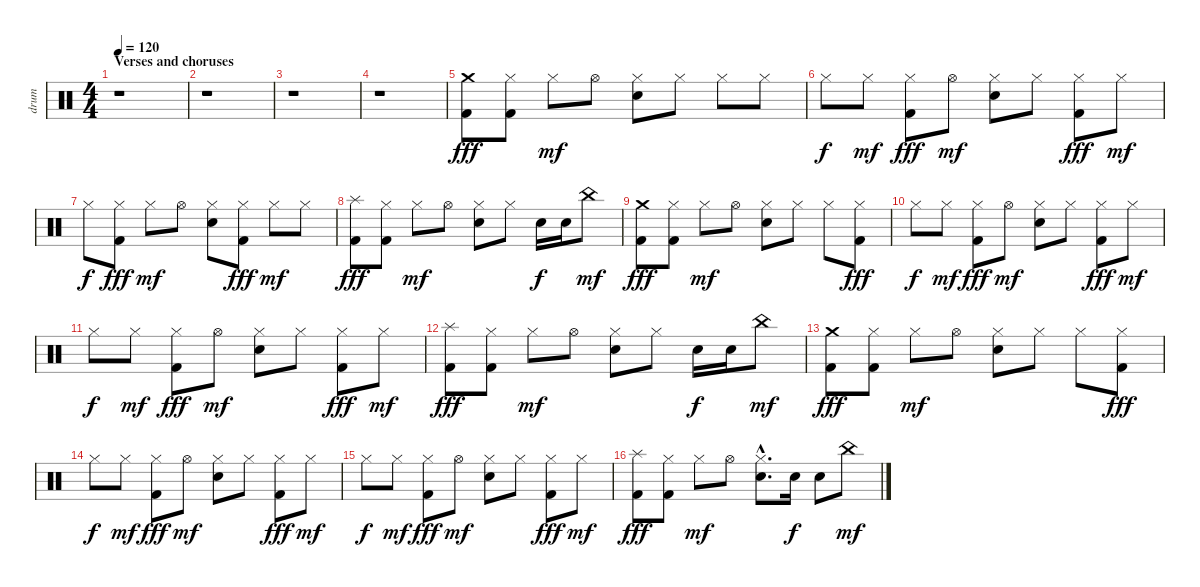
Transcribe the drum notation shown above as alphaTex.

\track ("drum" "drum") {instrument percussion}
\staff {score}
\articulation defaults
\ts (4 4)
\section ("" "Verses and choruses")
\tempo 120
\clef neutral
\ks c
r.1{dy fff} |
r.1 |
r.1 |
r.1 |
("Crash medium (hit)" "Kick (hit) 2").8{volume 2} ("Hi-Hat (closed)" "Kick (hit) 2").8{volume 9} "Hi-Hat (closed)".8{dy mf} "Hi-Hat (open)".8 ("Hi-Hat (closed)" "Electric Snare (hit)").8 "Hi-Hat (closed)".8 "Hi-Hat (closed)".8 "Hi-Hat (closed)".8 |
"Hi-Hat (closed)".8{dy f} "Hi-Hat (closed)".8{dy mf} ("Hi-Hat (closed)" "Kick (hit) 2").8{dy fff} "Hi-Hat (open)".8{dy mf} ("Hi-Hat (closed)" "Electric Snare (hit)").8 "Hi-Hat (closed)".8 ("Hi-Hat (closed)" "Kick (hit) 2").8{dy fff} "Hi-Hat (closed)".8{dy mf} |
"Hi-Hat (closed)".8{dy f volume 13} ("Hi-Hat (closed)" "Kick (hit) 2").8{dy fff} "Hi-Hat (closed)".8{dy mf} "Hi-Hat (open)".8 ("Hi-Hat (closed)" "Electric Snare (hit)").8 ("Hi-Hat (closed)" "Kick (hit) 2").8{dy fff} "Hi-Hat (closed)".8{dy mf} "Hi-Hat (closed)".8 |
("Splash (hit)" "Kick (hit) 2").8{dy fff} ("Hi-Hat (closed)" "Kick (hit) 2").8 "Hi-Hat (closed)".8{dy mf} "Hi-Hat (open)".8 ("Hi-Hat (closed)" "Electric Snare (hit)").8 "Hi-Hat (closed)".8 "Electric Snare (hit)".16{dy f} "Electric Snare (hit)".16 "China (hit)".8{dy mf} |
("Crash medium (hit)" "Kick (hit) 2").8{dy fff} ("Hi-Hat (closed)" "Kick (hit) 2").8 "Hi-Hat (closed)".8{dy mf} "Hi-Hat (open)".8 ("Hi-Hat (closed)" "Electric Snare (hit)").8 "Hi-Hat (closed)".8 "Hi-Hat (closed)".8 ("Hi-Hat (closed)" "Kick (hit) 2").8{dy fff} |
"Hi-Hat (closed)".8{dy f} "Hi-Hat (closed)".8{dy mf} ("Hi-Hat (closed)" "Kick (hit) 2").8{dy fff} "Hi-Hat (open)".8{dy mf} ("Hi-Hat (closed)" "Electric Snare (hit)").8 "Hi-Hat (closed)".8 ("Hi-Hat (closed)" "Kick (hit) 2").8{dy fff} "Hi-Hat (closed)".8{dy mf} |
"Hi-Hat (closed)".8{dy f} "Hi-Hat (closed)".8{dy mf} ("Hi-Hat (closed)" "Kick (hit) 2").8{dy fff} "Hi-Hat (open)".8{dy mf} ("Hi-Hat (closed)" "Electric Snare (hit)").8 "Hi-Hat (closed)".8 ("Hi-Hat (closed)" "Kick (hit) 2").8{dy fff} "Hi-Hat (closed)".8{dy mf} |
("Splash (hit)" "Kick (hit) 2").8{dy fff} ("Hi-Hat (closed)" "Kick (hit) 2").8 "Hi-Hat (closed)".8{dy mf} "Hi-Hat (open)".8 ("Hi-Hat (closed)" "Electric Snare (hit)").8 "Hi-Hat (closed)".8 "Electric Snare (hit)".16{dy f} "Electric Snare (hit)".16 "China (hit)".8{dy mf} |
("Crash medium (hit)" "Kick (hit) 2").8{dy fff} ("Hi-Hat (closed)" "Kick (hit) 2").8 "Hi-Hat (closed)".8{dy mf} "Hi-Hat (open)".8 ("Hi-Hat (closed)" "Electric Snare (hit)").8 "Hi-Hat (closed)".8 "Hi-Hat (closed)".8 ("Hi-Hat (closed)" "Kick (hit) 2").8{dy fff} |
"Hi-Hat (closed)".8{dy f} "Hi-Hat (closed)".8{dy mf} ("Hi-Hat (closed)" "Kick (hit) 2").8{dy fff} "Hi-Hat (open)".8{dy mf} ("Hi-Hat (closed)" "Electric Snare (hit)").8 "Hi-Hat (closed)".8 ("Hi-Hat (closed)" "Kick (hit) 2").8{dy fff} "Hi-Hat (closed)".8{dy mf} |
"Hi-Hat (closed)".8{dy f} "Hi-Hat (closed)".8{dy mf} ("Hi-Hat (closed)" "Kick (hit) 2").8{dy fff} "Hi-Hat (open)".8{dy mf} ("Hi-Hat (closed)" "Electric Snare (hit)").8 "Hi-Hat (closed)".8 ("Hi-Hat (closed)" "Kick (hit) 2").8{dy fff} "Hi-Hat (closed)".8{dy mf} |
("Splash (hit)" "Kick (hit) 2").8{dy fff} ("Hi-Hat (closed)" "Kick (hit) 2").8 "Hi-Hat (closed)".8{dy mf} "Hi-Hat (open)".8 ("Hi-Hat (closed)"{hac} "Electric Snare (hit)"{hac}).8{d} "Electric Snare (hit)".16{dy f} "Electric Snare (hit)".8 "China (hit)".8{dy mf}
